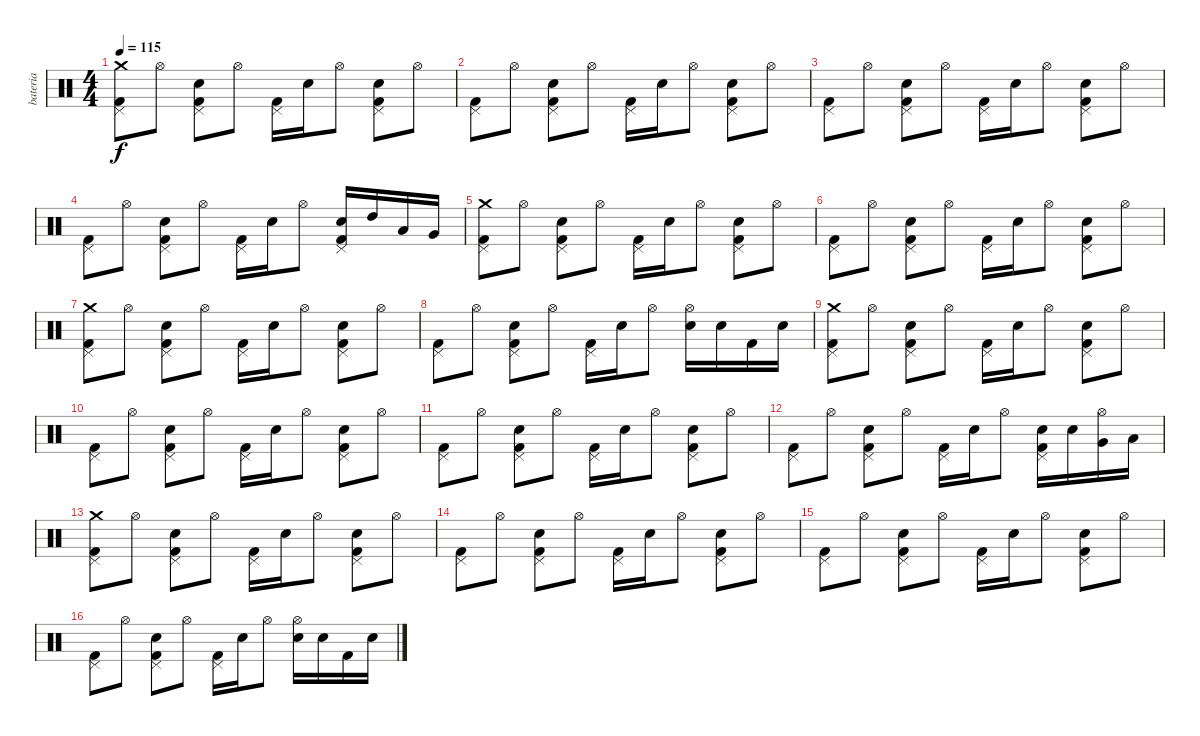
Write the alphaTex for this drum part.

\track ("bateria" "bateria") {instrument percussion}
\staff {score}
\articulation defaults
\ts (4 4)
\tempo 115
\clef neutral
\ks c
("Crash medium (hit)" "Pedal Hi-Hat (hit)" "Kick (hit) 2").8{dy f} "Hi-Hat (open)".8 ("Pedal Hi-Hat (hit)" "Snare (hit) 2" "Kick (hit) 2").8 "Hi-Hat (open)".8 ("Pedal Hi-Hat (hit)" "Kick (hit) 2").16 "Snare (hit) 2".16 "Hi-Hat (open)".8 ("Pedal Hi-Hat (hit)" "Snare (hit) 2" "Kick (hit) 2").8 "Hi-Hat (open)".8 |
("Pedal Hi-Hat (hit)" "Kick (hit) 2").8 "Hi-Hat (open)".8 ("Pedal Hi-Hat (hit)" "Snare (hit) 2" "Kick (hit) 2").8 "Hi-Hat (open)".8 ("Pedal Hi-Hat (hit)" "Kick (hit) 2").16 "Snare (hit) 2".16 "Hi-Hat (open)".8 ("Pedal Hi-Hat (hit)" "Snare (hit) 2" "Kick (hit) 2").8 "Hi-Hat (open)".8 |
("Pedal Hi-Hat (hit)" "Kick (hit) 2").8 "Hi-Hat (open)".8 ("Pedal Hi-Hat (hit)" "Snare (hit) 2" "Kick (hit) 2").8 "Hi-Hat (open)".8 ("Pedal Hi-Hat (hit)" "Kick (hit) 2").16 "Snare (hit) 2".16 "Hi-Hat (open)".8 ("Pedal Hi-Hat (hit)" "Snare (hit) 2" "Kick (hit) 2").8 "Hi-Hat (open)".8 |
("Pedal Hi-Hat (hit)" "Kick (hit) 2").8 "Hi-Hat (open)".8 ("Pedal Hi-Hat (hit)" "Snare (hit) 2" "Kick (hit) 2").8 "Hi-Hat (open)".8 ("Pedal Hi-Hat (hit)" "Kick (hit) 2").16 "Snare (hit) 2".16 "Hi-Hat (open)".8 ("Pedal Hi-Hat (hit)" "Snare (hit) 2" "Kick (hit) 2").16 "High Tom (hit)".16 "Low Tom (hit)".16 "Very Low Tom (hit)".16 |
("Crash medium (hit)" "Pedal Hi-Hat (hit)" "Kick (hit) 2").8 "Hi-Hat (open)".8 ("Pedal Hi-Hat (hit)" "Snare (hit) 2" "Kick (hit) 2").8 "Hi-Hat (open)".8 ("Pedal Hi-Hat (hit)" "Kick (hit) 2").16 "Snare (hit) 2".16 "Hi-Hat (open)".8 ("Pedal Hi-Hat (hit)" "Snare (hit) 2" "Kick (hit) 2").8 "Hi-Hat (open)".8 |
("Pedal Hi-Hat (hit)" "Kick (hit) 2").8 "Hi-Hat (open)".8 ("Pedal Hi-Hat (hit)" "Snare (hit) 2" "Kick (hit) 2").8 "Hi-Hat (open)".8 ("Pedal Hi-Hat (hit)" "Kick (hit) 2").16 "Snare (hit) 2".16 "Hi-Hat (open)".8 ("Pedal Hi-Hat (hit)" "Snare (hit) 2" "Kick (hit) 2").8 "Hi-Hat (open)".8 |
("Crash medium (hit)" "Pedal Hi-Hat (hit)" "Kick (hit) 2").8 "Hi-Hat (open)".8 ("Pedal Hi-Hat (hit)" "Snare (hit) 2" "Kick (hit) 2").8 "Hi-Hat (open)".8 ("Pedal Hi-Hat (hit)" "Kick (hit) 2").16 "Snare (hit) 2".16 "Hi-Hat (open)".8 ("Pedal Hi-Hat (hit)" "Snare (hit) 2" "Kick (hit) 2").8 "Hi-Hat (open)".8 |
("Pedal Hi-Hat (hit)" "Kick (hit) 2").8 "Hi-Hat (open)".8 ("Pedal Hi-Hat (hit)" "Snare (hit) 2" "Kick (hit) 2").8 "Hi-Hat (open)".8 ("Pedal Hi-Hat (hit)" "Kick (hit) 2").16 "Snare (hit) 2".16 "Hi-Hat (open)".8 ("Hi-Hat (open)" "Snare (hit) 2").16 "Snare (hit) 2".16 "Kick (hit) 2".16 "Snare (hit) 2".16 |
("Crash medium (hit)" "Pedal Hi-Hat (hit)" "Kick (hit) 2").8 "Hi-Hat (open)".8 ("Pedal Hi-Hat (hit)" "Snare (hit) 2" "Kick (hit) 2").8 "Hi-Hat (open)".8 ("Pedal Hi-Hat (hit)" "Kick (hit) 2").16 "Snare (hit) 2".16 "Hi-Hat (open)".8 ("Pedal Hi-Hat (hit)" "Snare (hit) 2" "Kick (hit) 2").8 "Hi-Hat (open)".8 |
("Pedal Hi-Hat (hit)" "Kick (hit) 2").8 "Hi-Hat (open)".8 ("Pedal Hi-Hat (hit)" "Snare (hit) 2" "Kick (hit) 2").8 "Hi-Hat (open)".8 ("Pedal Hi-Hat (hit)" "Kick (hit) 2").16 "Snare (hit) 2".16 "Hi-Hat (open)".8 ("Pedal Hi-Hat (hit)" "Snare (hit) 2" "Kick (hit) 2").8 "Hi-Hat (open)".8 |
("Pedal Hi-Hat (hit)" "Kick (hit) 2").8 "Hi-Hat (open)".8 ("Pedal Hi-Hat (hit)" "Snare (hit) 2" "Kick (hit) 2").8 "Hi-Hat (open)".8 ("Pedal Hi-Hat (hit)" "Kick (hit) 2").16 "Snare (hit) 2".16 "Hi-Hat (open)".8 ("Pedal Hi-Hat (hit)" "Snare (hit) 2" "Kick (hit) 2").8 "Hi-Hat (open)".8 |
("Pedal Hi-Hat (hit)" "Kick (hit) 2").8 "Hi-Hat (open)".8 ("Pedal Hi-Hat (hit)" "Snare (hit) 2" "Kick (hit) 2").8 "Hi-Hat (open)".8 ("Pedal Hi-Hat (hit)" "Kick (hit) 2").16 "Snare (hit) 2".16 "Hi-Hat (open)".8 ("Pedal Hi-Hat (hit)" "Snare (hit) 2" "Kick (hit) 2").16 "Snare (hit) 2".16 ("Hi-Hat (open)" "Very Low Tom (hit)").16 "Low Tom (hit)".16 |
("Crash medium (hit)" "Pedal Hi-Hat (hit)" "Kick (hit) 2").8 "Hi-Hat (open)".8 ("Pedal Hi-Hat (hit)" "Snare (hit) 2" "Kick (hit) 2").8 "Hi-Hat (open)".8 ("Pedal Hi-Hat (hit)" "Kick (hit) 2").16 "Snare (hit) 2".16 "Hi-Hat (open)".8 ("Pedal Hi-Hat (hit)" "Snare (hit) 2" "Kick (hit) 2").8 "Hi-Hat (open)".8 |
("Pedal Hi-Hat (hit)" "Kick (hit) 2").8 "Hi-Hat (open)".8 ("Pedal Hi-Hat (hit)" "Snare (hit) 2" "Kick (hit) 2").8 "Hi-Hat (open)".8 ("Pedal Hi-Hat (hit)" "Kick (hit) 2").16 "Snare (hit) 2".16 "Hi-Hat (open)".8 ("Pedal Hi-Hat (hit)" "Snare (hit) 2" "Kick (hit) 2").8 "Hi-Hat (open)".8 |
("Pedal Hi-Hat (hit)" "Kick (hit) 2").8 "Hi-Hat (open)".8 ("Pedal Hi-Hat (hit)" "Snare (hit) 2" "Kick (hit) 2").8 "Hi-Hat (open)".8 ("Pedal Hi-Hat (hit)" "Kick (hit) 2").16 "Snare (hit) 2".16 "Hi-Hat (open)".8 ("Pedal Hi-Hat (hit)" "Snare (hit) 2" "Kick (hit) 2").8 "Hi-Hat (open)".8 |
("Pedal Hi-Hat (hit)" "Kick (hit) 2").8 "Hi-Hat (open)".8 ("Pedal Hi-Hat (hit)" "Snare (hit) 2" "Kick (hit) 2").8 "Hi-Hat (open)".8 ("Pedal Hi-Hat (hit)" "Kick (hit) 2").16 "Snare (hit) 2".16 "Hi-Hat (open)".8 ("Hi-Hat (open)" "Snare (hit) 2").16 "Snare (hit) 2".16 "Kick (hit) 2".16 "Snare (hit) 2".16
